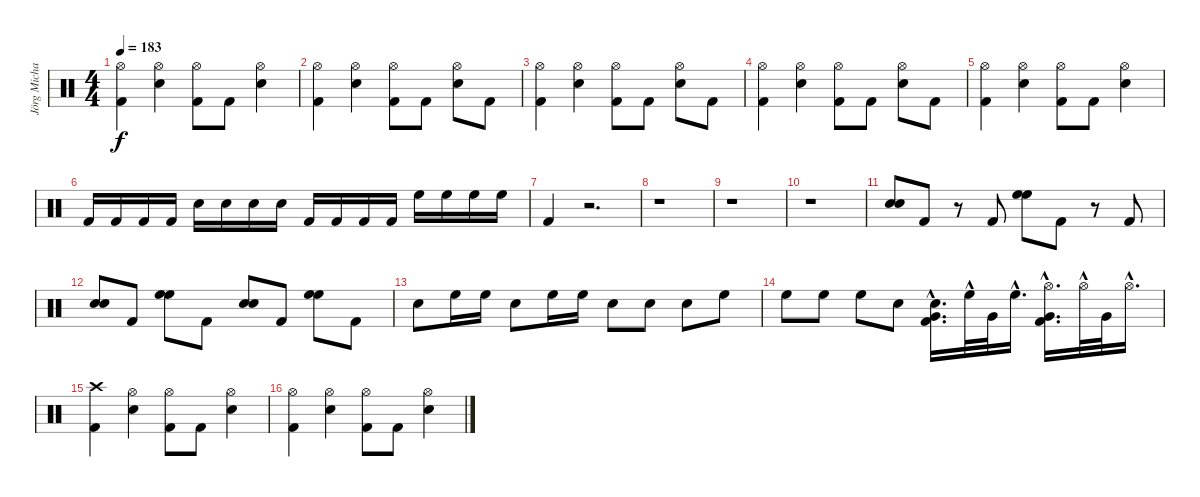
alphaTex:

\track ("Jörg Michael" "Jörg Micha") {instrument percussion}
\staff {score}
\articulation defaults
\ts (4 4)
\tempo 183
\clef neutral
\ks c
("Kick (hit) 2" "Hi-Hat (open)").4{dy f} ("Snare (hit) 2" "Hi-Hat (open)").4 ("Kick (hit) 2" "Hi-Hat (open)").8 "Kick (hit) 2".8 ("Snare (hit) 2" "Hi-Hat (open)").4 |
("Kick (hit) 2" "Hi-Hat (open)").4 ("Snare (hit) 2" "Hi-Hat (open)").4 ("Kick (hit) 2" "Hi-Hat (open)").8 "Kick (hit) 2".8 ("Snare (hit) 2" "Hi-Hat (open)").8 "Kick (hit) 2".8 |
("Kick (hit) 2" "Hi-Hat (open)").4 ("Snare (hit) 2" "Hi-Hat (open)").4 ("Kick (hit) 2" "Hi-Hat (open)").8 "Kick (hit) 2".8 ("Snare (hit) 2" "Hi-Hat (open)").8 "Kick (hit) 2".8 |
("Kick (hit) 2" "Hi-Hat (open)").4 ("Snare (hit) 2" "Hi-Hat (open)").4 ("Kick (hit) 2" "Hi-Hat (open)").8 "Kick (hit) 2".8 ("Snare (hit) 2" "Hi-Hat (open)").8 "Kick (hit) 2".8 |
("Kick (hit) 2" "Hi-Hat (open)").4 ("Snare (hit) 2" "Hi-Hat (open)").4 ("Kick (hit) 2" "Hi-Hat (open)").8 "Kick (hit) 2".8 ("Snare (hit) 2" "Hi-Hat (open)").4 |
"Kick (hit) 2".16 "Kick (hit) 2".16 "Kick (hit) 2".16 "Kick (hit) 2".16 "Snare (hit) 2".16 "Snare (hit) 2".16 "Snare (hit) 2".16 "Snare (hit) 2".16 "Kick (hit) 2".16 "Kick (hit) 2".16 "Kick (hit) 2".16 "Kick (hit) 2".16 "High Floor Tom (hit)".16 "High Floor Tom (hit)".16 "High Floor Tom (hit)".16 "High Floor Tom (hit)".16 |
"Kick (hit) 2".4 r.2{d} |
r.1 |
r.1 |
r.1 |
("Snare (hit) 2" "Snare (hit) 2").8 "Kick (hit) 2".8 r.8 "Kick (hit) 2".8 ("High Floor Tom (hit)" "High Floor Tom (hit)").8 "Kick (hit) 2".8 r.8 "Kick (hit) 2".8 |
("Snare (hit) 2" "Snare (hit) 2").8 "Kick (hit) 2".8 ("High Floor Tom (hit)" "High Floor Tom (hit)").8 "Kick (hit) 2".8 ("Snare (hit) 2" "Snare (hit) 2").8 "Kick (hit) 2".8 ("High Floor Tom (hit)" "High Floor Tom (hit)").8 "Kick (hit) 2".8 |
"Snare (hit) 2".8 "High Floor Tom (hit)".16 "High Floor Tom (hit)".16 "Snare (hit) 2".8 "High Floor Tom (hit)".16 "High Floor Tom (hit)".16 "Snare (hit) 2".8 "Snare (hit) 2".8 "Snare (hit) 2".8 "High Floor Tom (hit)".8 |
"High Floor Tom (hit)".8 "High Floor Tom (hit)".8 "High Floor Tom (hit)".8 "Snare (hit) 2".8 ("Snare (hit) 2"{hac} "Very Low Tom (hit)" "Kick (hit) 2").16{d} "High Floor Tom (hit)"{hac}.32 "Very Low Tom (hit)".32 "High Floor Tom (hit)"{hac}.16{d} ("Hi-Hat (open)"{hac} "Very Low Tom (hit)" "Kick (hit) 2").16{d} "Hi-Hat (open)"{hac}.32 "Very Low Tom (hit)".32 "Hi-Hat (open)"{hac}.16{d} |
("Kick (hit) 2" "Crash high (hit)").4 ("Snare (hit) 2" "Hi-Hat (open)").4 ("Kick (hit) 2" "Hi-Hat (open)").8 "Kick (hit) 2".8 ("Snare (hit) 2" "Hi-Hat (open)").4 |
("Kick (hit) 2" "Hi-Hat (open)").4 ("Snare (hit) 2" "Hi-Hat (open)").4 ("Kick (hit) 2" "Hi-Hat (open)").8 "Kick (hit) 2".8 ("Snare (hit) 2" "Hi-Hat (open)").4
